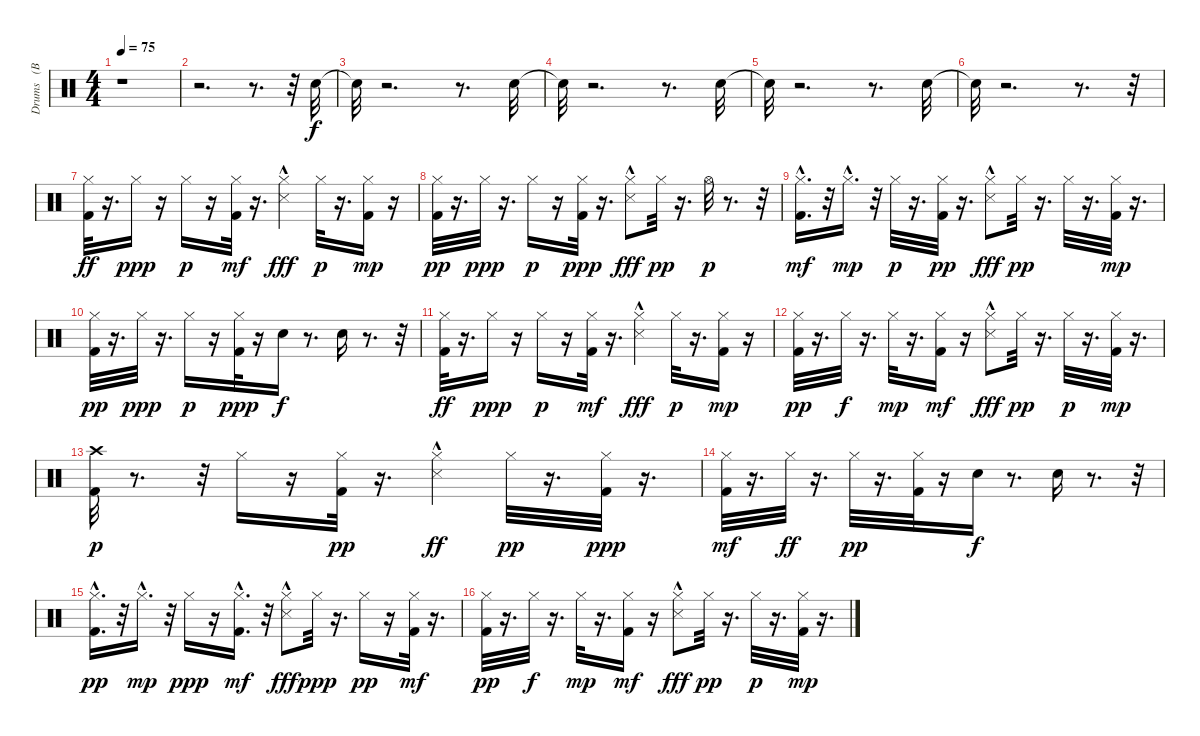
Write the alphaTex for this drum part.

\track ("Drums   (BB)" "Drums   (B") {instrument percussion}
\staff {score}
\articulation defaults
\ts (4 4)
\tempo 75
\clef neutral
\ks c
r.1{dy f} |
r.2{d} r.8{d} r.32 "Snare (hit) 2".32 |
"Snare (hit)"{t}.32 r.2{d} r.8{d} "Snare (hit) 2".32 |
"Snare (hit)"{t}.32 r.2{d} r.8{d} "Snare (hit) 2".32 |
"Snare (hit)"{t}.32 r.2{d} r.8{d} "Snare (hit) 2".32 |
"Snare (hit)"{t}.32 r.2{d} r.8{d} r.32 |
("Hi-Hat (closed)" "Kick (hit) 2").32{dy ff} r.16{d} "Hi-Hat (closed)".16{dy ppp} r.16 "Hi-Hat (closed)".16{dy p} r.16 ("Hi-Hat (closed)" "Kick (hit) 2").32{dy mf} r.16{d} ("Snare (side stick) 3"{hac} "Hi-Hat (closed)").4{dy fff} "Hi-Hat (closed)".32{dy p} r.16{d} ("Hi-Hat (closed)" "Kick (hit) 2").16{dy mp} r.16 |
("Kick (hit) 2" "Hi-Hat (closed)").32{dy pp} r.16{d} "Hi-Hat (closed)".32{dy ppp} r.16{d} "Hi-Hat (closed)".16{dy p} r.16 ("Kick (hit) 2" "Hi-Hat (closed)").32{dy ppp} r.16{d} ("Snare (side stick) 3"{hac} "Hi-Hat (closed)").8{dy fff} "Hi-Hat (closed)".32{dy pp} r.16{d} "Hi-Hat (open)".32{dy p} r.8{d} r.32 |
("Hi-Hat (closed)"{hac} "Kick (hit) 2").16{d dy mf} r.32 "Hi-Hat (closed)"{hac}.16{d dy mp} r.32 "Hi-Hat (closed)".32{dy p} r.16{d} ("Kick (hit) 2" "Hi-Hat (closed)").32{dy pp} r.16{d} ("Snare (side stick) 3"{hac} "Hi-Hat (closed)").8{dy fff} "Hi-Hat (closed)".32{dy pp} r.16{d} "Hi-Hat (closed)".32 r.16{d} ("Hi-Hat (closed)" "Kick (hit) 2").32{dy mp} r.16{d} |
("Kick (hit) 2" "Hi-Hat (closed)").32{dy pp} r.16{d} "Hi-Hat (closed)".32{dy ppp} r.16{d} "Hi-Hat (closed)".16{dy p} r.16 ("Kick (hit) 2" "Hi-Hat (closed)").32{dy ppp} r.16 "Snare (hit) 2".16{dy f} r.8{d} "Snare (hit) 2".16 r.8{d} r.32 |
("Hi-Hat (closed)" "Kick (hit) 2").32{dy ff} r.16{d} "Hi-Hat (closed)".16{dy ppp} r.16 "Hi-Hat (closed)".16{dy p} r.16 ("Hi-Hat (closed)" "Kick (hit) 2").32{dy mf} r.16{d} ("Snare (side stick) 3"{hac} "Hi-Hat (closed)").4{dy fff} "Hi-Hat (closed)".32{dy p} r.16{d} ("Hi-Hat (closed)" "Kick (hit) 2").16{dy mp} r.16 |
("Hi-Hat (closed)" "Kick (hit) 2").32{dy pp} r.16{d} "Hi-Hat (closed)".32{dy f} r.16{d} "Hi-Hat (closed)".32{dy mp} r.16{d} ("Hi-Hat (closed)" "Kick (hit) 2").16{dy mf} r.16 ("Snare (side stick) 3"{hac} "Hi-Hat (closed)").8{dy fff} "Hi-Hat (closed)".32{dy pp} r.16{d} "Hi-Hat (closed)".32{dy p} r.16{d} ("Hi-Hat (closed)" "Kick (hit) 2").32{dy mp} r.16{d} |
("Kick (hit) 2" "Crash high (hit)").32{dy p} r.8{d} r.32 "Hi-Hat (closed)".16 r.16 ("Kick (hit) 2" "Hi-Hat (closed)").32{dy pp} r.16{d} ("Snare (side stick) 3"{hac} "Hi-Hat (closed)").4{dy ff} "Hi-Hat (closed)".32{dy pp} r.16{d} ("Kick (hit) 2" "Hi-Hat (closed)").32{dy ppp} r.16{d} |
("Hi-Hat (closed)" "Kick (hit) 2").32{dy mf} r.16{d} "Hi-Hat (closed)".32{dy ff} r.16{d} "Hi-Hat (closed)".32{dy pp} r.16{d} ("Kick (hit) 2" "Hi-Hat (closed)").32 r.16 "Snare (hit) 2".16{dy f} r.8{d} "Snare (hit) 2".16 r.8{d} r.32 |
("Kick (hit) 2"{hac} "Hi-Hat (closed)").16{d dy pp} r.32 "Hi-Hat (closed)"{hac}.16{d dy mp} r.32 "Hi-Hat (closed)".16{dy ppp} r.16 ("Hi-Hat (closed)"{hac} "Kick (hit) 2").16{d dy mf} r.32 ("Snare (side stick) 3"{hac} "Hi-Hat (closed)").8{dy fff} "Hi-Hat (closed)".32{dy ppp} r.16{d} "Hi-Hat (closed)".16{dy pp} r.16 ("Hi-Hat (closed)" "Kick (hit) 2").32{dy mf} r.16{d} |
("Hi-Hat (closed)" "Kick (hit) 2").32{dy pp} r.16{d} "Hi-Hat (closed)".32{dy f} r.16{d} "Hi-Hat (closed)".32{dy mp} r.16{d} ("Hi-Hat (closed)" "Kick (hit) 2").16{dy mf} r.16 ("Snare (side stick) 3"{hac} "Hi-Hat (closed)").8{dy fff} "Hi-Hat (closed)".32{dy pp} r.16{d} "Hi-Hat (closed)".32{dy p} r.16{d} ("Hi-Hat (closed)" "Kick (hit) 2").32{dy mp} r.16{d}
